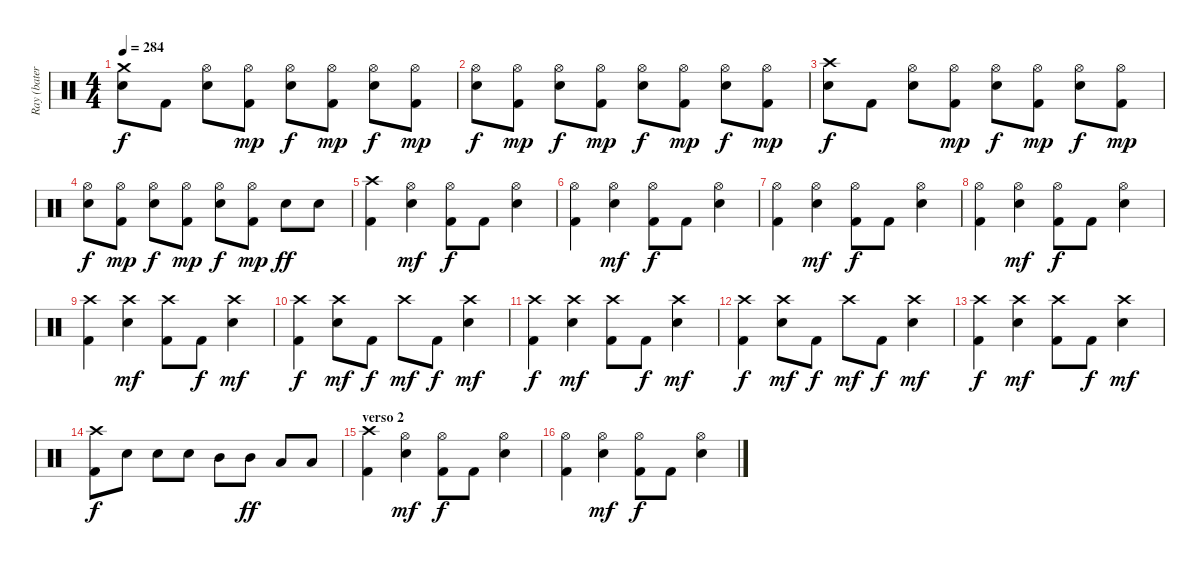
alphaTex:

\track ("Ray (batería)" "Ray (bater") {instrument percussion}
\staff {score}
\articulation defaults
\ts (4 4)
\tempo 284
\clef neutral
\ks c
("Crash medium (hit)" "Snare (hit) 2").8{dy f} "Kick (hit) 2".8 ("Hi-Hat (open)" "Snare (hit) 2").8 ("Hi-Hat (open)" "Kick (hit) 2").8{dy mp} ("Hi-Hat (open)" "Snare (hit) 2").8{dy f} ("Hi-Hat (open)" "Kick (hit) 2").8{dy mp} ("Hi-Hat (open)" "Snare (hit) 2").8{dy f} ("Hi-Hat (open)" "Kick (hit) 2").8{dy mp} |
("Hi-Hat (open)" "Snare (hit) 2").8{dy f} ("Hi-Hat (open)" "Kick (hit) 2").8{dy mp} ("Hi-Hat (open)" "Snare (hit) 2").8{dy f} ("Hi-Hat (open)" "Kick (hit) 2").8{dy mp} ("Hi-Hat (open)" "Snare (hit) 2").8{dy f} ("Hi-Hat (open)" "Kick (hit) 2").8{dy mp} ("Hi-Hat (open)" "Snare (hit) 2").8{dy f} ("Hi-Hat (open)" "Kick (hit) 2").8{dy mp} |
("Crash high (hit)" "Snare (hit) 2").8{dy f} "Kick (hit) 2".8 ("Hi-Hat (open)" "Snare (hit) 2").8 ("Hi-Hat (open)" "Kick (hit) 2").8{dy mp} ("Hi-Hat (open)" "Snare (hit) 2").8{dy f} ("Hi-Hat (open)" "Kick (hit) 2").8{dy mp} ("Hi-Hat (open)" "Snare (hit) 2").8{dy f} ("Hi-Hat (open)" "Kick (hit) 2").8{dy mp} |
("Hi-Hat (open)" "Snare (hit) 2").8{dy f} ("Hi-Hat (open)" "Kick (hit) 2").8{dy mp} ("Hi-Hat (open)" "Snare (hit) 2").8{dy f} ("Hi-Hat (open)" "Kick (hit) 2").8{dy mp} ("Hi-Hat (open)" "Snare (hit) 2").8{dy f} ("Hi-Hat (open)" "Kick (hit) 2").8{dy mp} "Snare (hit) 2".8{dy ff} "Snare (hit) 2".8 |
("Crash high (hit)" "Kick (hit) 2").4 ("Hi-Hat (open)" "Snare (hit) 2").4{dy mf} ("Hi-Hat (open)" "Kick (hit) 2").8{dy f} "Kick (hit) 2".8 ("Hi-Hat (open)" "Snare (hit) 2").4 |
("Hi-Hat (open)" "Kick (hit) 2").4 ("Hi-Hat (open)" "Snare (hit) 2").4{dy mf} ("Hi-Hat (open)" "Kick (hit) 2").8{dy f} "Kick (hit) 2".8 ("Hi-Hat (open)" "Snare (hit) 2").4 |
("Hi-Hat (open)" "Kick (hit) 2").4 ("Hi-Hat (open)" "Snare (hit) 2").4{dy mf} ("Hi-Hat (open)" "Kick (hit) 2").8{dy f} "Kick (hit) 2".8 ("Hi-Hat (open)" "Snare (hit) 2").4 |
("Hi-Hat (open)" "Kick (hit) 2").4 ("Hi-Hat (open)" "Snare (hit) 2").4{dy mf} ("Hi-Hat (open)" "Kick (hit) 2").8{dy f} "Kick (hit) 2".8 ("Hi-Hat (open)" "Snare (hit) 2").4 |
("Crash high (hit)" "Kick (hit) 2").4 ("Crash high (hit)" "Snare (hit) 2").4{dy mf} ("Crash high (hit)" "Kick (hit) 2").8 "Kick (hit) 2".8{dy f} ("Crash high (hit)" "Snare (hit) 2").4{dy mf} |
("Crash high (hit)" "Kick (hit) 2").4{dy f} ("Crash high (hit)" "Snare (hit) 2").8{dy mf} "Kick (hit) 2".8{dy f} "Crash high (hit)".8{dy mf} "Kick (hit) 2".8{dy f} ("Crash high (hit)" "Snare (hit) 2").4{dy mf} |
("Crash high (hit)" "Kick (hit) 2").4{dy f} ("Crash high (hit)" "Snare (hit) 2").4{dy mf} ("Crash high (hit)" "Kick (hit) 2").8 "Kick (hit) 2".8{dy f} ("Crash high (hit)" "Snare (hit) 2").4{dy mf} |
("Crash high (hit)" "Kick (hit) 2").4{dy f} ("Crash high (hit)" "Snare (hit) 2").8{dy mf} "Kick (hit) 2".8{dy f} "Crash high (hit)".8{dy mf} "Kick (hit) 2".8{dy f} ("Crash high (hit)" "Snare (hit) 2").4{dy mf} |
("Crash high (hit)" "Kick (hit) 2").4{dy f} ("Crash high (hit)" "Snare (hit) 2").4{dy mf} ("Crash high (hit)" "Kick (hit) 2").8 "Kick (hit) 2".8{dy f} ("Crash high (hit)" "Snare (hit) 2").4{dy mf} |
("Crash high (hit)" "Kick (hit) 2").8{dy f} "Snare (hit) 2".8 "Snare (hit) 2".8 "Snare (hit) 2".8 "Mid Tom (hit)".8 "Mid Tom (hit)".8{dy ff} "Low Tom (hit)".8 "Low Tom (hit)".8 |
\section ("" "verso 2")
("Crash high (hit)" "Kick (hit) 2").4 ("Hi-Hat (open)" "Snare (hit) 2").4{dy mf} ("Hi-Hat (open)" "Kick (hit) 2").8{dy f} "Kick (hit) 2".8 ("Hi-Hat (open)" "Snare (hit) 2").4 |
("Hi-Hat (open)" "Kick (hit) 2").4 ("Hi-Hat (open)" "Snare (hit) 2").4{dy mf} ("Hi-Hat (open)" "Kick (hit) 2").8{dy f} "Kick (hit) 2".8 ("Hi-Hat (open)" "Snare (hit) 2").4
